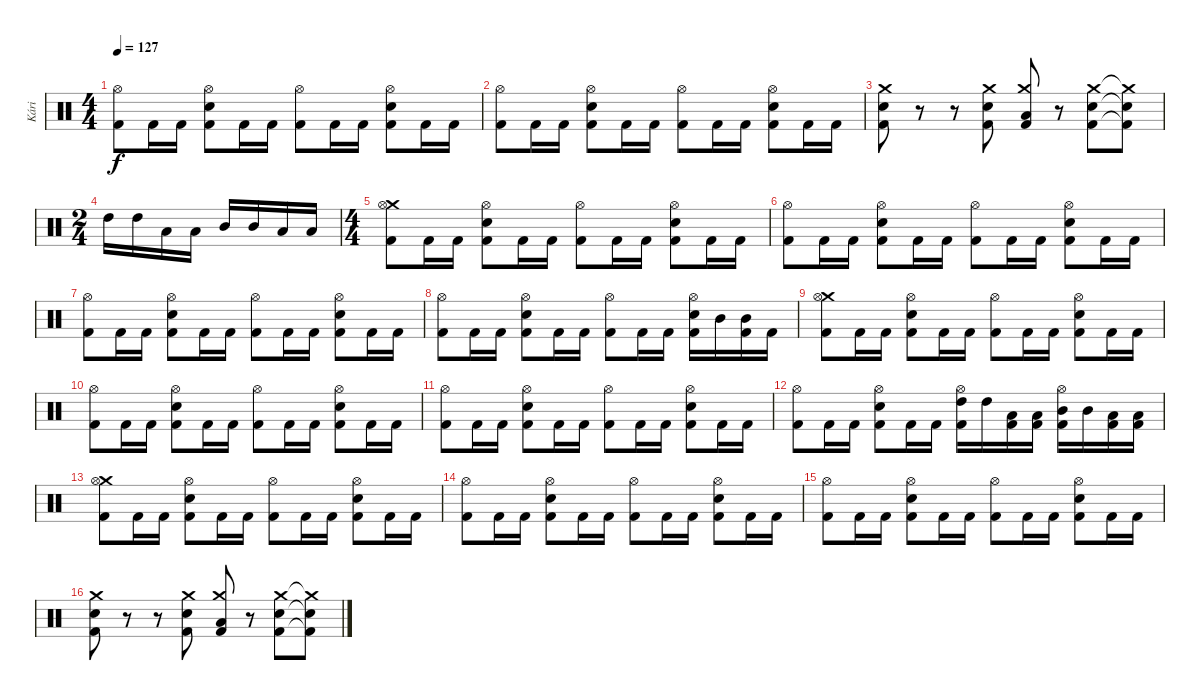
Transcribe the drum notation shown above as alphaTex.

\track ("Kári" "Kári") {instrument percussion}
\staff {score}
\articulation defaults
\ts (4 4)
\tempo 127
\clef neutral
\ks c
("Hi-Hat (open)" "Kick (hit) 2").8{dy f} "Kick (hit) 2".16 "Kick (hit) 2".16 ("Hi-Hat (open)" "Snare (hit) 2" "Kick (hit) 2").8 "Kick (hit) 2".16 "Kick (hit) 2".16 ("Hi-Hat (open)" "Kick (hit) 2").8 "Kick (hit) 2".16 "Kick (hit) 2".16 ("Hi-Hat (open)" "Snare (hit) 2" "Kick (hit) 2").8 "Kick (hit) 2".16 "Kick (hit) 2".16 |
("Hi-Hat (open)" "Kick (hit) 2").8 "Kick (hit) 2".16 "Kick (hit) 2".16 ("Hi-Hat (open)" "Snare (hit) 2" "Kick (hit) 2").8 "Kick (hit) 2".16 "Kick (hit) 2".16 ("Hi-Hat (open)" "Kick (hit) 2").8 "Kick (hit) 2".16 "Kick (hit) 2".16 ("Hi-Hat (open)" "Snare (hit) 2" "Kick (hit) 2").8 "Kick (hit) 2".16 "Kick (hit) 2".16 |
("Crash medium (hit)" "Snare (hit) 2" "Kick (hit) 2").8 r.8 r.8 ("Crash medium (hit)" "Snare (hit) 2" "Kick (hit) 2").8 ("Crash medium (hit)" "Low Tom (hit)" "Kick (hit) 2").8 r.8 ("Crash medium (hit)" "Snare (hit) 2" "Kick (hit) 2").8 ("Crash medium (hit)"{t} "Snare (hit)"{t} "Kick (hit) 2"{t}).8 |
\ts (2 4)
"High Tom (hit)".16 "High Tom (hit)".16 "Low Tom (hit)".16 "Low Tom (hit)".16 "Mid Tom (hit)".16 "Mid Tom (hit)".16 "Low Tom (hit)".16 "Low Tom (hit)".16 |
\ts (4 4)
("Crash medium (hit)" "Hi-Hat (open)" "Kick (hit) 2").8 "Kick (hit) 2".16 "Kick (hit) 2".16 ("Hi-Hat (open)" "Snare (hit) 2" "Kick (hit) 2").8 "Kick (hit) 2".16 "Kick (hit) 2".16 ("Hi-Hat (open)" "Kick (hit) 2").8 "Kick (hit) 2".16 "Kick (hit) 2".16 ("Hi-Hat (open)" "Snare (hit) 2" "Kick (hit) 2").8 "Kick (hit) 2".16 "Kick (hit) 2".16 |
("Hi-Hat (open)" "Kick (hit) 2").8 "Kick (hit) 2".16 "Kick (hit) 2".16 ("Hi-Hat (open)" "Snare (hit) 2" "Kick (hit) 2").8 "Kick (hit) 2".16 "Kick (hit) 2".16 ("Hi-Hat (open)" "Kick (hit) 2").8 "Kick (hit) 2".16 "Kick (hit) 2".16 ("Hi-Hat (open)" "Snare (hit) 2" "Kick (hit) 2").8 "Kick (hit) 2".16 "Kick (hit) 2".16 |
("Hi-Hat (open)" "Kick (hit) 2").8 "Kick (hit) 2".16 "Kick (hit) 2".16 ("Hi-Hat (open)" "Snare (hit) 2" "Kick (hit) 2").8 "Kick (hit) 2".16 "Kick (hit) 2".16 ("Hi-Hat (open)" "Kick (hit) 2").8 "Kick (hit) 2".16 "Kick (hit) 2".16 ("Hi-Hat (open)" "Snare (hit) 2" "Kick (hit) 2").8 "Kick (hit) 2".16 "Kick (hit) 2".16 |
("Hi-Hat (open)" "Kick (hit) 2").8 "Kick (hit) 2".16 "Kick (hit) 2".16 ("Hi-Hat (open)" "Snare (hit) 2" "Kick (hit) 2").8 "Kick (hit) 2".16 "Kick (hit) 2".16 ("Hi-Hat (open)" "Kick (hit) 2").8 "Kick (hit) 2".16 "Kick (hit) 2".16 ("Hi-Hat (open)" "Snare (hit) 2" "Kick (hit) 2").16 "Mid Tom (hit)".16 ("Mid Tom (hit)" "Kick (hit) 2").16 "Kick (hit) 2".16 |
("Crash medium (hit)" "Hi-Hat (open)" "Kick (hit) 2").8 "Kick (hit) 2".16 "Kick (hit) 2".16 ("Hi-Hat (open)" "Snare (hit) 2" "Kick (hit) 2").8 "Kick (hit) 2".16 "Kick (hit) 2".16 ("Hi-Hat (open)" "Kick (hit) 2").8 "Kick (hit) 2".16 "Kick (hit) 2".16 ("Hi-Hat (open)" "Snare (hit) 2" "Kick (hit) 2").8 "Kick (hit) 2".16 "Kick (hit) 2".16 |
("Hi-Hat (open)" "Kick (hit) 2").8 "Kick (hit) 2".16 "Kick (hit) 2".16 ("Hi-Hat (open)" "Snare (hit) 2" "Kick (hit) 2").8 "Kick (hit) 2".16 "Kick (hit) 2".16 ("Hi-Hat (open)" "Kick (hit) 2").8 "Kick (hit) 2".16 "Kick (hit) 2".16 ("Hi-Hat (open)" "Snare (hit) 2" "Kick (hit) 2").8 "Kick (hit) 2".16 "Kick (hit) 2".16 |
("Hi-Hat (open)" "Kick (hit) 2").8 "Kick (hit) 2".16 "Kick (hit) 2".16 ("Hi-Hat (open)" "Snare (hit) 2" "Kick (hit) 2").8 "Kick (hit) 2".16 "Kick (hit) 2".16 ("Hi-Hat (open)" "Kick (hit) 2").8 "Kick (hit) 2".16 "Kick (hit) 2".16 ("Hi-Hat (open)" "Snare (hit) 2" "Kick (hit) 2").8 "Kick (hit) 2".16 "Kick (hit) 2".16 |
("Hi-Hat (open)" "Kick (hit) 2").8 "Kick (hit) 2".16 "Kick (hit) 2".16 ("Hi-Hat (open)" "Snare (hit) 2" "Kick (hit) 2").8 "Kick (hit) 2".16 "Kick (hit) 2".16 ("Hi-Hat (open)" "High Tom (hit)" "Kick (hit) 2").16 "High Tom (hit)".16 ("Low Tom (hit)" "Kick (hit) 2").16 ("Low Tom (hit)" "Kick (hit) 2").16 ("Hi-Hat (open)" "Mid Tom (hit)" "Kick (hit) 2").16 "Mid Tom (hit)".16 ("Low Tom (hit)" "Kick (hit) 2").16 ("Low Tom (hit)" "Kick (hit) 2").16 |
("Crash medium (hit)" "Hi-Hat (open)" "Kick (hit) 2").8 "Kick (hit) 2".16 "Kick (hit) 2".16 ("Hi-Hat (open)" "Snare (hit) 2" "Kick (hit) 2").8 "Kick (hit) 2".16 "Kick (hit) 2".16 ("Hi-Hat (open)" "Kick (hit) 2").8 "Kick (hit) 2".16 "Kick (hit) 2".16 ("Hi-Hat (open)" "Snare (hit) 2" "Kick (hit) 2").8 "Kick (hit) 2".16 "Kick (hit) 2".16 |
("Hi-Hat (open)" "Kick (hit) 2").8 "Kick (hit) 2".16 "Kick (hit) 2".16 ("Hi-Hat (open)" "Snare (hit) 2" "Kick (hit) 2").8 "Kick (hit) 2".16 "Kick (hit) 2".16 ("Hi-Hat (open)" "Kick (hit) 2").8 "Kick (hit) 2".16 "Kick (hit) 2".16 ("Hi-Hat (open)" "Snare (hit) 2" "Kick (hit) 2").8 "Kick (hit) 2".16 "Kick (hit) 2".16 |
("Hi-Hat (open)" "Kick (hit) 2").8 "Kick (hit) 2".16 "Kick (hit) 2".16 ("Hi-Hat (open)" "Snare (hit) 2" "Kick (hit) 2").8 "Kick (hit) 2".16 "Kick (hit) 2".16 ("Hi-Hat (open)" "Kick (hit) 2").8 "Kick (hit) 2".16 "Kick (hit) 2".16 ("Hi-Hat (open)" "Snare (hit) 2" "Kick (hit) 2").8 "Kick (hit) 2".16 "Kick (hit) 2".16 |
("Crash medium (hit)" "Snare (hit) 2" "Kick (hit) 2").8 r.8 r.8 ("Crash medium (hit)" "Snare (hit) 2" "Kick (hit) 2").8 ("Crash medium (hit)" "Low Tom (hit)" "Kick (hit) 2").8 r.8 ("Crash medium (hit)" "Snare (hit) 2" "Kick (hit) 2").8 ("Crash medium (hit)"{t} "Snare (hit)"{t} "Kick (hit) 2"{t}).8
